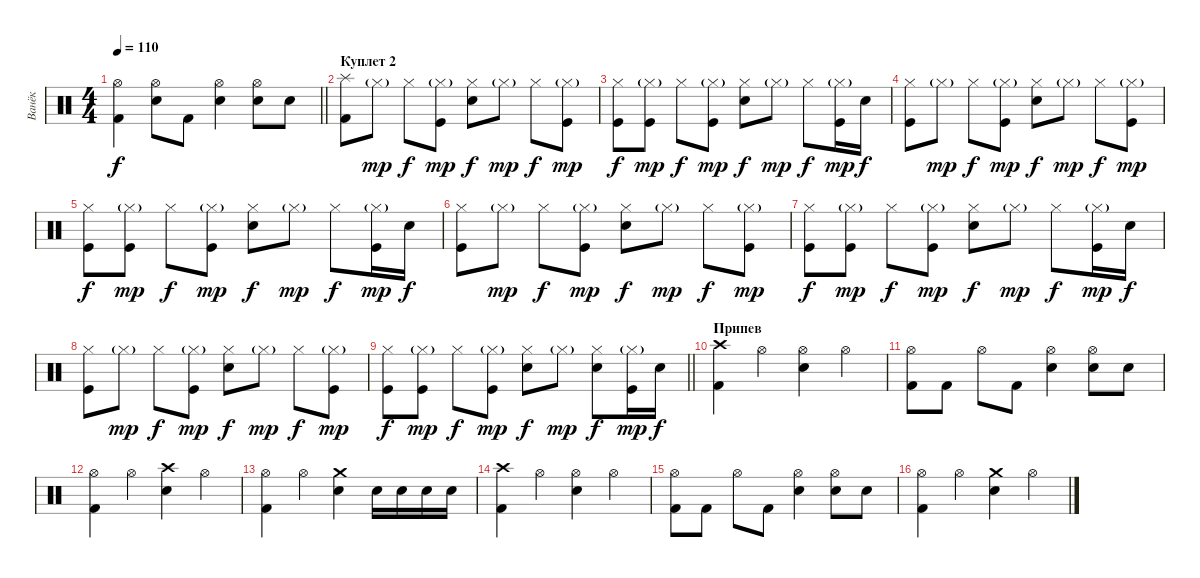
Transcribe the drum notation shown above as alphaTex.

\track ("Ванёк" "Ванёк") {instrument percussion}
\staff {score}
\articulation defaults
\ts (4 4)
\tempo 110
\clef neutral
\barLineRight lightlight
\ks c
("Hi-Hat (open)" "Kick (hit) 2").4{dy f} ("Hi-Hat (open)" "Electric Snare (hit)").8 "Kick (hit) 2".8 ("Hi-Hat (open)" "Electric Snare (hit)").4 ("Hi-Hat (open)" "Electric Snare (hit)").8 "Electric Snare (hit)".8 |
\section ("" "Куплет 2")
("Splash (hit)" "Kick (hit) 2").8 "Hi-Hat (closed)"{g}.8{dy mp} "Hi-Hat (closed)".8{dy f} ("Kick (hit)" "Hi-Hat (closed)"{g}).8{dy mp} ("Hi-Hat (closed)" "Electric Snare (hit)").8{dy f} "Hi-Hat (closed)"{g}.8{dy mp} "Hi-Hat (closed)".8{dy f} ("Kick (hit)" "Hi-Hat (closed)"{g}).8{dy mp} |
("Kick (hit)" "Hi-Hat (closed)").8{dy f} ("Kick (hit)" "Hi-Hat (closed)"{g}).8{dy mp} "Hi-Hat (closed)".8{dy f} ("Kick (hit)" "Hi-Hat (closed)"{g}).8{dy mp} ("Hi-Hat (closed)" "Electric Snare (hit)").8{dy f} "Hi-Hat (closed)"{g}.8{dy mp} "Hi-Hat (closed)".8{dy f} ("Kick (hit)" "Hi-Hat (closed)"{g}).16{dy mp} "Electric Snare (hit)".16{dy f} |
("Kick (hit)" "Hi-Hat (closed)").8 "Hi-Hat (closed)"{g}.8{dy mp} "Hi-Hat (closed)".8{dy f} ("Kick (hit)" "Hi-Hat (closed)"{g}).8{dy mp} ("Hi-Hat (closed)" "Electric Snare (hit)").8{dy f} "Hi-Hat (closed)"{g}.8{dy mp} "Hi-Hat (closed)".8{dy f} ("Kick (hit)" "Hi-Hat (closed)"{g}).8{dy mp} |
("Kick (hit)" "Hi-Hat (closed)").8{dy f} ("Kick (hit)" "Hi-Hat (closed)"{g}).8{dy mp} "Hi-Hat (closed)".8{dy f} ("Kick (hit)" "Hi-Hat (closed)"{g}).8{dy mp} ("Hi-Hat (closed)" "Electric Snare (hit)").8{dy f} "Hi-Hat (closed)"{g}.8{dy mp} "Hi-Hat (closed)".8{dy f} ("Kick (hit)" "Hi-Hat (closed)"{g}).16{dy mp} "Electric Snare (hit)".16{dy f} |
("Kick (hit)" "Hi-Hat (closed)").8 "Hi-Hat (closed)"{g}.8{dy mp} "Hi-Hat (closed)".8{dy f} ("Kick (hit)" "Hi-Hat (closed)"{g}).8{dy mp} ("Hi-Hat (closed)" "Electric Snare (hit)").8{dy f} "Hi-Hat (closed)"{g}.8{dy mp} "Hi-Hat (closed)".8{dy f} ("Kick (hit)" "Hi-Hat (closed)"{g}).8{dy mp} |
("Kick (hit)" "Hi-Hat (closed)").8{dy f} ("Kick (hit)" "Hi-Hat (closed)"{g}).8{dy mp} "Hi-Hat (closed)".8{dy f} ("Kick (hit)" "Hi-Hat (closed)"{g}).8{dy mp} ("Hi-Hat (closed)" "Electric Snare (hit)").8{dy f} "Hi-Hat (closed)"{g}.8{dy mp} "Hi-Hat (closed)".8{dy f} ("Kick (hit)" "Hi-Hat (closed)"{g}).16{dy mp} "Electric Snare (hit)".16{dy f} |
("Kick (hit)" "Hi-Hat (closed)").8 "Hi-Hat (closed)"{g}.8{dy mp} "Hi-Hat (closed)".8{dy f} ("Kick (hit)" "Hi-Hat (closed)"{g}).8{dy mp} ("Hi-Hat (closed)" "Electric Snare (hit)").8{dy f} "Hi-Hat (closed)"{g}.8{dy mp} "Hi-Hat (closed)".8{dy f} ("Kick (hit)" "Hi-Hat (closed)"{g}).8{dy mp} |
\barLineRight lightlight
("Kick (hit)" "Hi-Hat (closed)").8{dy f} ("Kick (hit)" "Hi-Hat (closed)"{g}).8{dy mp} "Hi-Hat (closed)".8{dy f} ("Kick (hit)" "Hi-Hat (closed)"{g}).8{dy mp} ("Hi-Hat (closed)" "Electric Snare (hit)").8{dy f} "Hi-Hat (closed)"{g}.8{dy mp} ("Hi-Hat (closed)" "Electric Snare (hit)").8{dy f} ("Kick (hit)" "Hi-Hat (closed)"{g}).16{dy mp} "Electric Snare (hit)".16{dy f} |
\section ("" "Припев")
("Crash high (hit)" "Kick (hit) 2").4 "Hi-Hat (open)".4 ("Hi-Hat (open)" "Electric Snare (hit)").4 "Hi-Hat (open)".4 |
("Hi-Hat (open)" "Kick (hit) 2").8 "Kick (hit) 2".8 "Hi-Hat (open)".8 "Kick (hit) 2".8 ("Hi-Hat (open)" "Electric Snare (hit)").4 ("Hi-Hat (open)" "Electric Snare (hit)").8 "Electric Snare (hit)".8 |
("Hi-Hat (open)" "Kick (hit) 2").4 "Hi-Hat (open)".4 ("Crash high (hit)" "Electric Snare (hit)").4 "Hi-Hat (open)".4 |
("Hi-Hat (open)" "Kick (hit) 2").4 "Hi-Hat (open)".4 ("Crash medium (hit)" "Electric Snare (hit)").4 "Electric Snare (hit)".16 "Electric Snare (hit)".16 "Electric Snare (hit)".16 "Electric Snare (hit)".16 |
("Crash high (hit)" "Kick (hit) 2").4 "Hi-Hat (open)".4 ("Hi-Hat (open)" "Electric Snare (hit)").4 "Hi-Hat (open)".4 |
("Hi-Hat (open)" "Kick (hit) 2").8 "Kick (hit) 2".8 "Hi-Hat (open)".8 "Kick (hit) 2".8 ("Hi-Hat (open)" "Electric Snare (hit)").4 ("Hi-Hat (open)" "Electric Snare (hit)").8 "Electric Snare (hit)".8 |
("Hi-Hat (open)" "Kick (hit) 2").4 "Hi-Hat (open)".4 ("Crash medium (hit)" "Electric Snare (hit)").4 "Hi-Hat (open)".4
